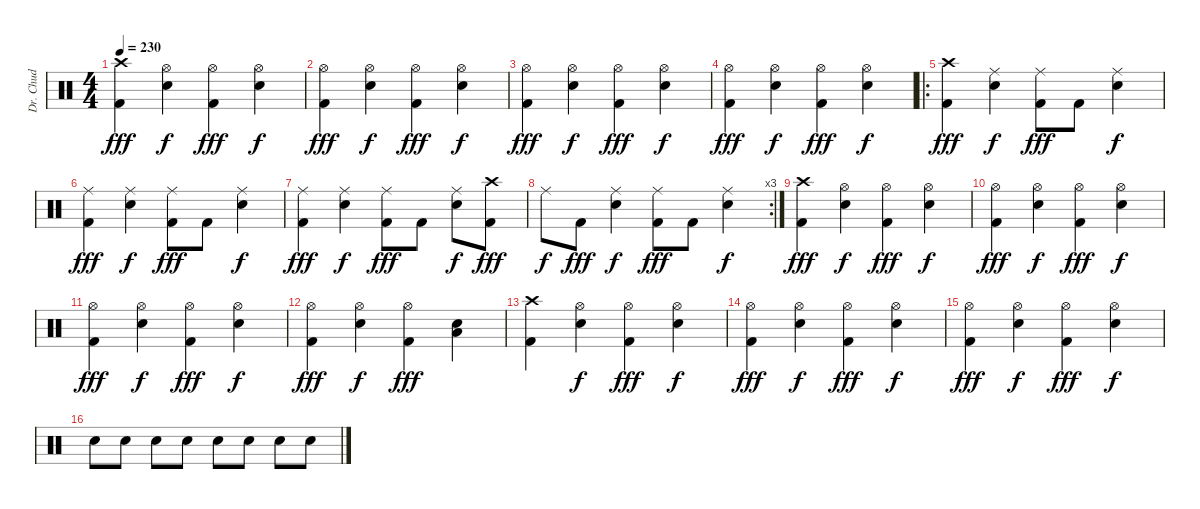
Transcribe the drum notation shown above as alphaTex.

\track ("Dr. Chud" "Dr. Chud") {instrument percussion}
\staff {score}
\articulation defaults
\ts (4 4)
\tempo 230
\clef neutral
\ks c
("Crash high (hit)" "Kick (hit) 2").4{dy fff} ("Hi-Hat (open)" "Snare (hit) 2").4{dy f} ("Hi-Hat (open)" "Kick (hit) 2").4{dy fff} ("Hi-Hat (open)" "Snare (hit) 2").4{dy f} |
("Hi-Hat (open)" "Kick (hit) 2").4{dy fff} ("Hi-Hat (open)" "Snare (hit) 2").4{dy f} ("Hi-Hat (open)" "Kick (hit) 2").4{dy fff} ("Hi-Hat (open)" "Snare (hit) 2").4{dy f} |
("Hi-Hat (open)" "Kick (hit) 2").4{dy fff} ("Hi-Hat (open)" "Snare (hit) 2").4{dy f} ("Hi-Hat (open)" "Kick (hit) 2").4{dy fff} ("Hi-Hat (open)" "Snare (hit) 2").4{dy f} |
("Hi-Hat (open)" "Kick (hit) 2").4{dy fff} ("Hi-Hat (open)" "Snare (hit) 2").4{dy f} ("Hi-Hat (open)" "Kick (hit) 2").4{dy fff} ("Hi-Hat (open)" "Snare (hit) 2").4{dy f} |
\ro
("Crash high (hit)" "Kick (hit) 2").4{dy fff} ("Ride (middle)" "Snare (hit) 2").4{dy f} ("Ride (middle)" "Kick (hit) 2").8{dy fff} "Kick (hit) 2".8 ("Ride (middle)" "Snare (hit) 2").4{dy f} |
("Ride (middle)" "Kick (hit) 2").4{dy fff} ("Ride (middle)" "Snare (hit) 2").4{dy f} ("Ride (middle)" "Kick (hit) 2").8{dy fff} "Kick (hit) 2".8 ("Ride (middle)" "Snare (hit) 2").4{dy f} |
("Ride (middle)" "Kick (hit) 2").4{dy fff} ("Ride (middle)" "Snare (hit) 2").4{dy f} ("Ride (middle)" "Kick (hit) 2").8{dy fff} "Kick (hit) 2".8 ("Ride (middle)" "Snare (hit) 2").8{dy f} ("Crash high (hit)" "Kick (hit) 2").8{dy fff} |
\rc 3 "Ride (middle)".8{dy f} "Kick (hit) 2".8{dy fff}
("Ride (middle)" "Snare (hit) 2").4{dy f} ("Ride (middle)" "Kick (hit) 2").8{dy fff} "Kick (hit) 2".8 ("Ride (middle)" "Snare (hit) 2").4{dy f} |
("Crash high (hit)" "Kick (hit) 2").4{dy fff} ("Hi-Hat (open)" "Snare (hit) 2").4{dy f} ("Hi-Hat (open)" "Kick (hit) 2").4{dy fff} ("Hi-Hat (open)" "Snare (hit) 2").4{dy f} |
("Hi-Hat (open)" "Kick (hit) 2").4{dy fff} ("Hi-Hat (open)" "Snare (hit) 2").4{dy f} ("Hi-Hat (open)" "Kick (hit) 2").4{dy fff} ("Hi-Hat (open)" "Snare (hit) 2").4{dy f} |
("Hi-Hat (open)" "Kick (hit) 2").4{dy fff} ("Hi-Hat (open)" "Snare (hit) 2").4{dy f} ("Hi-Hat (open)" "Kick (hit) 2").4{dy fff} ("Hi-Hat (open)" "Snare (hit) 2").4{dy f} |
("Hi-Hat (open)" "Kick (hit) 2").4{dy fff} ("Hi-Hat (open)" "Snare (hit) 2").4{dy f} ("Hi-Hat (open)" "Kick (hit) 2").4{dy fff} ("Low Tom (hit)" "Snare (hit) 2").4 |
("Crash high (hit)" "Kick (hit) 2").4 ("Hi-Hat (open)" "Snare (hit) 2").4{dy f} ("Hi-Hat (open)" "Kick (hit) 2").4{dy fff} ("Hi-Hat (open)" "Snare (hit) 2").4{dy f} |
("Hi-Hat (open)" "Kick (hit) 2").4{dy fff} ("Hi-Hat (open)" "Snare (hit) 2").4{dy f} ("Hi-Hat (open)" "Kick (hit) 2").4{dy fff} ("Hi-Hat (open)" "Snare (hit) 2").4{dy f} |
("Hi-Hat (open)" "Kick (hit) 2").4{dy fff} ("Hi-Hat (open)" "Snare (hit) 2").4{dy f} ("Hi-Hat (open)" "Kick (hit) 2").4{dy fff} ("Hi-Hat (open)" "Snare (hit) 2").4{dy f} |
"Snare (hit) 2".8 "Snare (hit) 2".8 "Snare (hit) 2".8 "Snare (hit) 2".8 "Snare (hit) 2".8 "Snare (hit) 2".8 "Snare (hit) 2".8 "Snare (hit) 2".8
